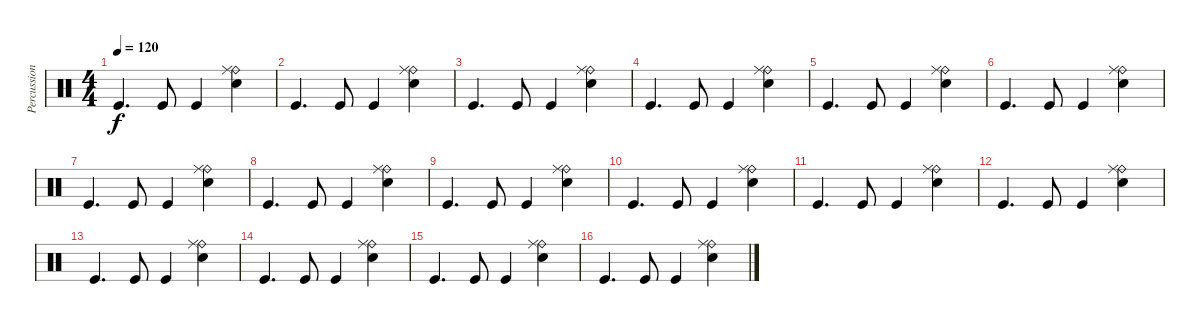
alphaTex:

\track ("Percussion" "Percussion") {instrument percussion}
\staff {score}
\articulation defaults
\ts (4 4)
\tempo 120
\clef neutral
\ks c "Kick (hit)".4{d dy f} "Kick (hit)".8 "Kick (hit)".4
("Electric Snare (hit)" "Ride (bell)" "Ride (middle)").4 |
"Kick (hit)".4{d} "Kick (hit)".8 "Kick (hit)".4 ("Electric Snare (hit)" "Ride (bell)" "Ride (middle)").4 |
"Kick (hit)".4{d} "Kick (hit)".8 "Kick (hit)".4 ("Electric Snare (hit)" "Ride (bell)" "Ride (middle)").4 |
"Kick (hit)".4{d} "Kick (hit)".8 "Kick (hit)".4 ("Electric Snare (hit)" "Ride (bell)" "Ride (middle)").4 |
"Kick (hit)".4{d} "Kick (hit)".8 "Kick (hit)".4 ("Electric Snare (hit)" "Ride (bell)" "Ride (middle)").4 |
"Kick (hit)".4{d} "Kick (hit)".8 "Kick (hit)".4 ("Electric Snare (hit)" "Ride (bell)" "Ride (middle)").4 |
"Kick (hit)".4{d} "Kick (hit)".8 "Kick (hit)".4 ("Electric Snare (hit)" "Ride (bell)" "Ride (middle)").4 |
"Kick (hit)".4{d} "Kick (hit)".8 "Kick (hit)".4 ("Electric Snare (hit)" "Ride (bell)" "Ride (middle)").4 |
"Kick (hit)".4{d} "Kick (hit)".8 "Kick (hit)".4 ("Electric Snare (hit)" "Ride (bell)" "Ride (middle)").4 |
"Kick (hit)".4{d} "Kick (hit)".8 "Kick (hit)".4 ("Electric Snare (hit)" "Ride (bell)" "Ride (middle)").4 |
"Kick (hit)".4{d} "Kick (hit)".8 "Kick (hit)".4 ("Electric Snare (hit)" "Ride (bell)" "Ride (middle)").4 |
"Kick (hit)".4{d} "Kick (hit)".8 "Kick (hit)".4 ("Electric Snare (hit)" "Ride (bell)" "Ride (middle)").4 |
"Kick (hit)".4{d} "Kick (hit)".8 "Kick (hit)".4 ("Electric Snare (hit)" "Ride (bell)" "Ride (middle)").4 |
"Kick (hit)".4{d} "Kick (hit)".8 "Kick (hit)".4 ("Electric Snare (hit)" "Ride (bell)" "Ride (middle)").4 |
"Kick (hit)".4{d} "Kick (hit)".8 "Kick (hit)".4 ("Electric Snare (hit)" "Ride (bell)" "Ride (middle)").4 |
"Kick (hit)".4{d} "Kick (hit)".8 "Kick (hit)".4 ("Electric Snare (hit)" "Ride (bell)" "Ride (middle)").4
